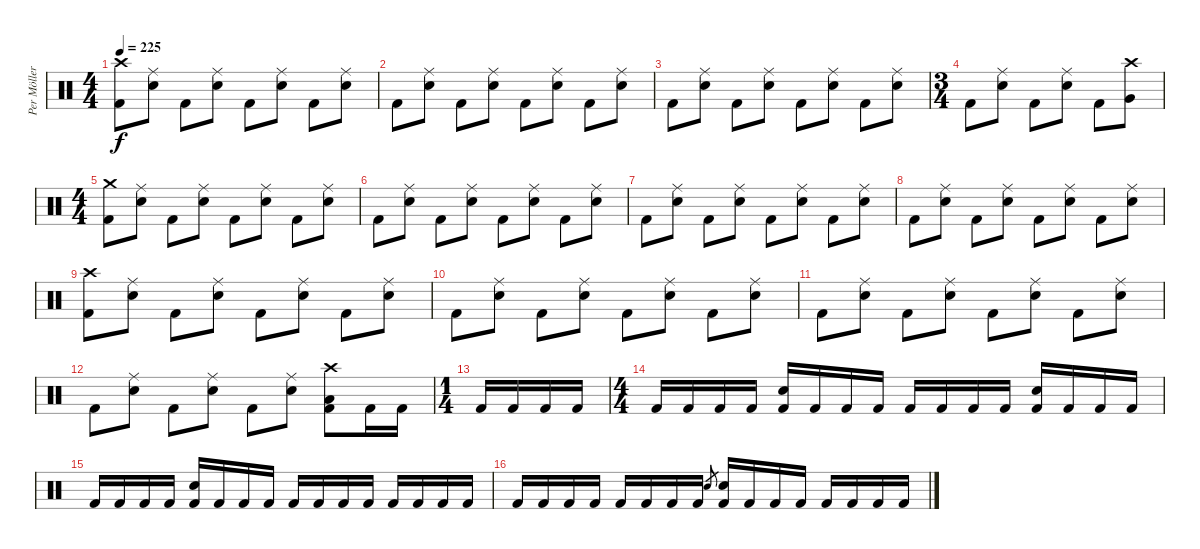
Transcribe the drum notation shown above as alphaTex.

\track ("Per Möller Jensen" "Per Möller") {instrument percussion}
\staff {score}
\articulation defaults
\ts (4 4)
\tempo 225
\clef neutral
\ks c
("Crash high (hit)" "Kick (hit) 2").8{dy f} ("Ride (middle)" "Snare (hit) 2").8 "Kick (hit) 2".8 ("Ride (middle)" "Snare (hit) 2").8 "Kick (hit) 2".8 ("Ride (middle)" "Snare (hit) 2").8 "Kick (hit) 2".8 ("Ride (middle)" "Snare (hit) 2").8 |
"Kick (hit) 2".8 ("Ride (middle)" "Snare (hit) 2").8 "Kick (hit) 2".8 ("Ride (middle)" "Snare (hit) 2").8 "Kick (hit) 2".8 ("Ride (middle)" "Snare (hit) 2").8 "Kick (hit) 2".8 ("Ride (middle)" "Snare (hit) 2").8 |
"Kick (hit) 2".8 ("Ride (middle)" "Snare (hit) 2").8 "Kick (hit) 2".8 ("Ride (middle)" "Snare (hit) 2").8 "Kick (hit) 2".8 ("Ride (middle)" "Snare (hit) 2").8 "Kick (hit) 2".8 ("Ride (middle)" "Snare (hit) 2").8 |
\ts (3 4)
"Kick (hit) 2".8 ("Ride (middle)" "Snare (hit) 2").8 "Kick (hit) 2".8 ("Ride (middle)" "Snare (hit) 2").8 "Kick (hit) 2".8 ("Crash high (hit)" "Very Low Tom (hit)").8 |
\ts (4 4)
("Crash medium (hit)" "Kick (hit) 2").8 ("Ride (middle)" "Snare (hit) 2").8 "Kick (hit) 2".8 ("Ride (middle)" "Snare (hit) 2").8 "Kick (hit) 2".8 ("Ride (middle)" "Snare (hit) 2").8 "Kick (hit) 2".8 ("Ride (middle)" "Snare (hit) 2").8 |
"Kick (hit) 2".8 ("Ride (middle)" "Snare (hit) 2").8 "Kick (hit) 2".8 ("Ride (middle)" "Snare (hit) 2").8 "Kick (hit) 2".8 ("Ride (middle)" "Snare (hit) 2").8 "Kick (hit) 2".8 ("Ride (middle)" "Snare (hit) 2").8 |
"Kick (hit) 2".8 ("Ride (middle)" "Snare (hit) 2").8 "Kick (hit) 2".8 ("Ride (middle)" "Snare (hit) 2").8 "Kick (hit) 2".8 ("Ride (middle)" "Snare (hit) 2").8 "Kick (hit) 2".8 ("Ride (middle)" "Snare (hit) 2").8 |
"Kick (hit) 2".8 ("Ride (middle)" "Snare (hit) 2").8 "Kick (hit) 2".8 ("Ride (middle)" "Snare (hit) 2").8 "Kick (hit) 2".8 ("Ride (middle)" "Snare (hit) 2").8 "Kick (hit) 2".8 ("Ride (middle)" "Snare (hit) 2").8 |
("Crash high (hit)" "Kick (hit) 2").8 ("Ride (middle)" "Snare (hit) 2").8 "Kick (hit) 2".8 ("Ride (middle)" "Snare (hit) 2").8 "Kick (hit) 2".8 ("Ride (middle)" "Snare (hit) 2").8 "Kick (hit) 2".8 ("Ride (middle)" "Snare (hit) 2").8 |
"Kick (hit) 2".8 ("Ride (middle)" "Snare (hit) 2").8 "Kick (hit) 2".8 ("Ride (middle)" "Snare (hit) 2").8 "Kick (hit) 2".8 ("Ride (middle)" "Snare (hit) 2").8 "Kick (hit) 2".8 ("Ride (middle)" "Snare (hit) 2").8 |
"Kick (hit) 2".8 ("Ride (middle)" "Snare (hit) 2").8 "Kick (hit) 2".8 ("Ride (middle)" "Snare (hit) 2").8 "Kick (hit) 2".8 ("Ride (middle)" "Snare (hit) 2").8 "Kick (hit) 2".8 ("Ride (middle)" "Snare (hit) 2").8 |
"Kick (hit) 2".8 ("Ride (middle)" "Snare (hit) 2").8 "Kick (hit) 2".8 ("Ride (middle)" "Snare (hit) 2").8 "Kick (hit) 2".8 ("Ride (middle)" "Snare (hit) 2").8 ("Crash high (hit)" "Low Floor Tom (hit)" "Kick (hit) 2").8 "Kick (hit) 2".16 "Kick (hit) 2".16 |
\ts (1 4)
"Kick (hit) 2".16 "Kick (hit) 2".16 "Kick (hit) 2".16 "Kick (hit) 2".16 |
\ts (4 4)
"Kick (hit) 2".16 "Kick (hit) 2".16 "Kick (hit) 2".16 "Kick (hit) 2".16 ("Snare (hit) 2" "Kick (hit) 2").16 "Kick (hit) 2".16 "Kick (hit) 2".16 "Kick (hit) 2".16 "Kick (hit) 2".16 "Kick (hit) 2".16 "Kick (hit) 2".16 "Kick (hit) 2".16 ("Snare (hit) 2" "Kick (hit) 2").16 "Kick (hit) 2".16 "Kick (hit) 2".16 "Kick (hit) 2".16 |
"Kick (hit) 2".16 "Kick (hit) 2".16 "Kick (hit) 2".16 "Kick (hit) 2".16 ("Snare (hit) 2" "Kick (hit) 2").16 "Kick (hit) 2".16 "Kick (hit) 2".16 "Kick (hit) 2".16 "Kick (hit) 2".16 "Kick (hit) 2".16 "Kick (hit) 2".16 "Kick (hit) 2".16 "Kick (hit) 2".16 "Kick (hit) 2".16 "Kick (hit) 2".16 "Kick (hit) 2".16 |
"Kick (hit) 2".16 "Kick (hit) 2".16 "Kick (hit) 2".16 "Kick (hit) 2".16 "Kick (hit) 2".16 "Kick (hit) 2".16 "Kick (hit) 2".16 "Kick (hit) 2".16 "Snare (hit) 2".8{gr} ("Snare (hit) 2" "Kick (hit) 2").16 "Kick (hit) 2".16 "Kick (hit) 2".16 "Kick (hit) 2".16 "Kick (hit) 2".16 "Kick (hit) 2".16 "Kick (hit) 2".16 "Kick (hit) 2".16
